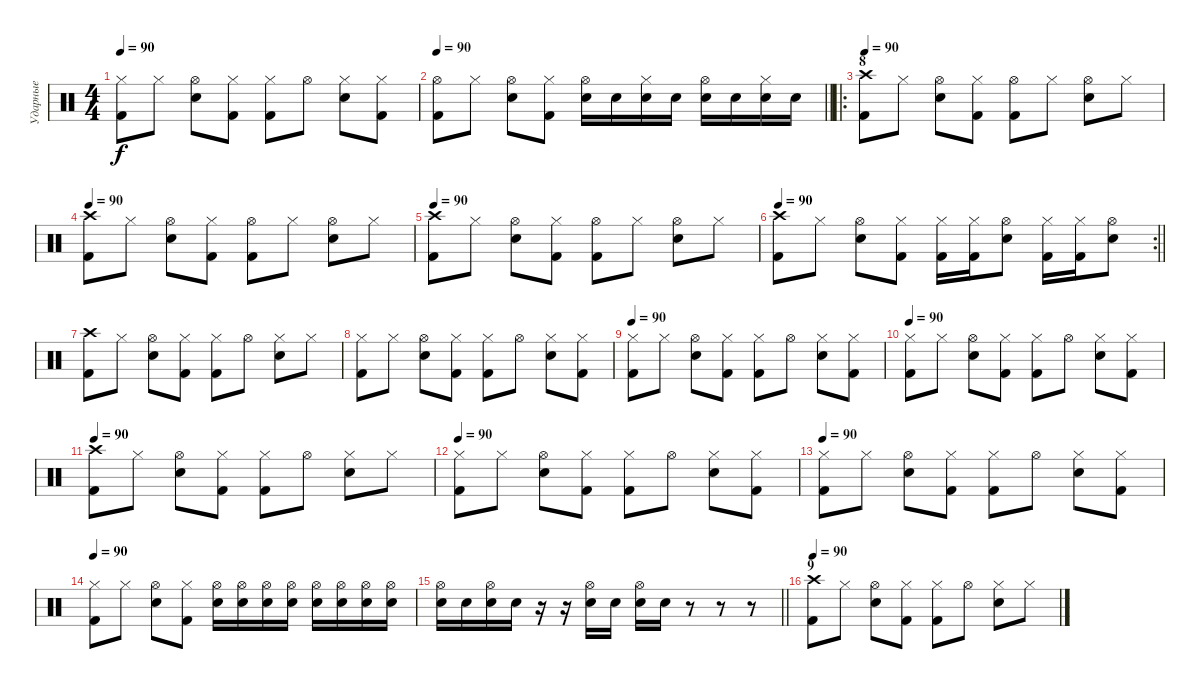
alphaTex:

\track ("Ударные" "Ударные") {solo instrument percussion}
\staff {score}
\articulation defaults
\ts (4 4)
\tempo 90
\clef neutral
\ks c
("Hi-Hat (closed)" "Kick (hit) 2").8{dy f} "Hi-Hat (closed)".8 ("Hi-Hat (open)" "Snare (hit) 2").8 ("Hi-Hat (closed)" "Kick (hit) 2").8 ("Hi-Hat (closed)" "Kick (hit) 2").8 "Hi-Hat (open)".8 ("Hi-Hat (closed)" "Snare (hit) 2").8 ("Hi-Hat (closed)" "Kick (hit) 2").8 |
\tempo 90
\barLineRight lightlight
("Hi-Hat (open)" "Kick (hit) 2").8 "Hi-Hat (closed)".8 ("Hi-Hat (open)" "Snare (hit) 2").8 ("Hi-Hat (closed)" "Kick (hit) 2").8 ("Hi-Hat (open)" "Snare (hit) 2").16 "Snare (hit) 2".16 ("Hi-Hat (closed)" "Snare (hit) 2").16 "Snare (hit) 2".16 ("Hi-Hat (open)" "Snare (hit) 2").16 "Snare (hit) 2".16 ("Hi-Hat (closed)" "Snare (hit) 2").16 "Snare (hit) 2".16 |
\ro
\section ("" "8")
\tempo 90
("Crash high (hit)" "Kick (hit) 2").8 "Hi-Hat (closed)".8 ("Hi-Hat (open)" "Snare (hit) 2").8 ("Hi-Hat (closed)" "Kick (hit) 2").8 ("Hi-Hat (open)" "Kick (hit) 2").8 "Hi-Hat (closed)".8 ("Hi-Hat (open)" "Snare (hit) 2").8 "Hi-Hat (closed)".8 |
\tempo 90
("Crash high (hit)" "Kick (hit) 2").8 "Hi-Hat (closed)".8 ("Hi-Hat (open)" "Snare (hit) 2").8 ("Hi-Hat (closed)" "Kick (hit) 2").8 ("Hi-Hat (open)" "Kick (hit) 2").8 "Hi-Hat (closed)".8 ("Hi-Hat (open)" "Snare (hit) 2").8 "Hi-Hat (closed)".8 |
\tempo 90
("Crash high (hit)" "Kick (hit) 2").8 "Hi-Hat (closed)".8 ("Hi-Hat (open)" "Snare (hit) 2").8 ("Hi-Hat (closed)" "Kick (hit) 2").8 ("Hi-Hat (open)" "Kick (hit) 2").8 "Hi-Hat (closed)".8 ("Hi-Hat (open)" "Snare (hit) 2").8 "Hi-Hat (closed)".8 |
\rc 2
\tempo 90
\barLineRight lightlight
("Crash high (hit)" "Kick (hit) 2").8 "Hi-Hat (closed)".8 ("Hi-Hat (open)" "Snare (hit) 2").8 ("Hi-Hat (closed)" "Kick (hit) 2").8 ("Hi-Hat (closed)" "Kick (hit) 2").16 ("Hi-Hat (closed)" "Kick (hit) 2").16 ("Hi-Hat (open)" "Snare (hit) 2").8 ("Hi-Hat (closed)" "Kick (hit) 2").16 ("Hi-Hat (closed)" "Kick (hit) 2").16 ("Hi-Hat (open)" "Snare (hit) 2").8 |
("Crash high (hit)" "Kick (hit) 2").8 "Hi-Hat (closed)".8 ("Hi-Hat (open)" "Snare (hit) 2").8 ("Hi-Hat (closed)" "Kick (hit) 2").8 ("Hi-Hat (closed)" "Kick (hit) 2").8 "Hi-Hat (open)".8 ("Hi-Hat (closed)" "Snare (hit) 2").8 "Hi-Hat (closed)".8 |
("Hi-Hat (closed)" "Kick (hit) 2").8 "Hi-Hat (closed)".8 ("Hi-Hat (open)" "Snare (hit) 2").8 ("Hi-Hat (closed)" "Kick (hit) 2").8 ("Hi-Hat (closed)" "Kick (hit) 2").8 "Hi-Hat (open)".8 ("Hi-Hat (closed)" "Snare (hit) 2").8 ("Hi-Hat (closed)" "Kick (hit) 2").8 |
\tempo 90
("Hi-Hat (closed)" "Kick (hit) 2").8 "Hi-Hat (closed)".8 ("Hi-Hat (open)" "Snare (hit) 2").8 ("Hi-Hat (closed)" "Kick (hit) 2").8 ("Hi-Hat (closed)" "Kick (hit) 2").8 "Hi-Hat (open)".8 ("Hi-Hat (closed)" "Snare (hit) 2").8 ("Hi-Hat (closed)" "Kick (hit) 2").8 |
\tempo 90
("Hi-Hat (closed)" "Kick (hit) 2").8 "Hi-Hat (closed)".8 ("Hi-Hat (open)" "Snare (hit) 2").8 ("Hi-Hat (closed)" "Kick (hit) 2").8 ("Hi-Hat (closed)" "Kick (hit) 2").8 "Hi-Hat (open)".8 ("Hi-Hat (closed)" "Snare (hit) 2").8 ("Hi-Hat (closed)" "Kick (hit) 2").8 |
\tempo 90
("Crash high (hit)" "Kick (hit) 2").8 "Hi-Hat (closed)".8 ("Hi-Hat (open)" "Snare (hit) 2").8 ("Hi-Hat (closed)" "Kick (hit) 2").8 ("Hi-Hat (closed)" "Kick (hit) 2").8 "Hi-Hat (open)".8 ("Hi-Hat (closed)" "Snare (hit) 2").8 "Hi-Hat (closed)".8 |
\tempo 90
("Hi-Hat (closed)" "Kick (hit) 2").8 "Hi-Hat (closed)".8 ("Hi-Hat (open)" "Snare (hit) 2").8 ("Hi-Hat (closed)" "Kick (hit) 2").8 ("Hi-Hat (closed)" "Kick (hit) 2").8 "Hi-Hat (open)".8 ("Hi-Hat (closed)" "Snare (hit) 2").8 ("Hi-Hat (closed)" "Kick (hit) 2").8 |
\tempo 90
("Hi-Hat (closed)" "Kick (hit) 2").8 "Hi-Hat (closed)".8 ("Hi-Hat (open)" "Snare (hit) 2").8 ("Hi-Hat (closed)" "Kick (hit) 2").8 ("Hi-Hat (closed)" "Kick (hit) 2").8 "Hi-Hat (open)".8 ("Hi-Hat (closed)" "Snare (hit) 2").8 ("Hi-Hat (closed)" "Kick (hit) 2").8 |
\tempo 90
("Hi-Hat (closed)" "Kick (hit) 2").8 "Hi-Hat (closed)".8 ("Hi-Hat (open)" "Snare (hit) 2").8 ("Hi-Hat (closed)" "Kick (hit) 2").8 ("Hi-Hat (open)" "Snare (hit) 2").16 ("Hi-Hat (open)" "Snare (hit) 2").16 ("Hi-Hat (open)" "Snare (hit) 2").16 ("Hi-Hat (open)" "Snare (hit) 2").16 ("Hi-Hat (open)" "Snare (hit) 2").16 ("Hi-Hat (open)" "Snare (hit) 2").16 ("Hi-Hat (open)" "Snare (hit) 2").16 ("Hi-Hat (open)" "Snare (hit) 2").16 |
\barLineRight lightlight
("Hi-Hat (open)" "Snare (hit) 2").16 "Snare (hit) 2".16 ("Hi-Hat (open)" "Snare (hit) 2").16 "Snare (hit) 2".16 r.16 r.16 ("Hi-Hat (open)" "Snare (hit) 2").16 "Snare (hit) 2".16 ("Hi-Hat (open)" "Snare (hit) 2").16 "Snare (hit) 2".16 r.8 r.8 r.8 |
\section ("" "9")
\tempo 90
("Crash high (hit)" "Kick (hit) 2").8 "Hi-Hat (closed)".8 ("Hi-Hat (open)" "Snare (hit) 2").8 ("Hi-Hat (closed)" "Kick (hit) 2").8 ("Hi-Hat (closed)" "Kick (hit) 2").8 "Hi-Hat (open)".8 ("Hi-Hat (closed)" "Snare (hit) 2").8 "Hi-Hat (closed)".8
